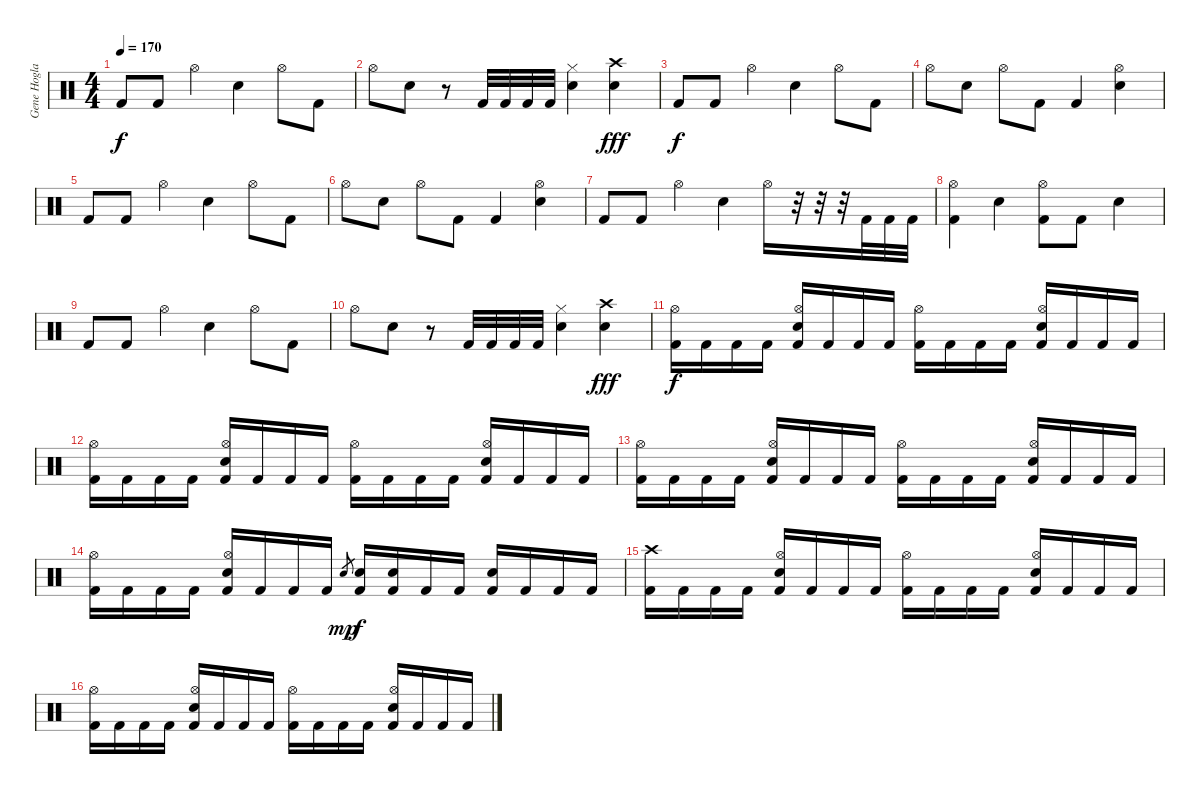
\track ("Gene Hoglan" "Gene Hogla") {instrument percussion}
\staff {score}
\articulation defaults
\ts (4 4)
\tempo 170
\clef neutral
\ks c "Kick (hit) 2".8{dy f} "Kick (hit) 2".8 "Hi-Hat (open)".4 "Snare (hit) 2".4 "Hi-Hat (open)".8 "Kick (hit) 2".8
|
"Hi-Hat (open)".8 "Snare (hit) 2".8 r.8 "Kick (hit) 2".32 "Kick (hit) 2".32 "Kick (hit) 2".32 "Kick (hit) 2".32 ("Hi-Hat (closed)" "Snare (hit) 2").4 ("Crash high (hit)" "Snare (hit) 2").4{dy fff} |
"Kick (hit) 2".8{dy f} "Kick (hit) 2".8 "Hi-Hat (open)".4 "Snare (hit) 2".4 "Hi-Hat (open)".8 "Kick (hit) 2".8 |
"Hi-Hat (open)".8 "Snare (hit) 2".8 "Hi-Hat (open)".8 "Kick (hit) 2".8 "Kick (hit) 2".4 ("Hi-Hat (open)" "Snare (hit) 2").4 |
"Kick (hit) 2".8 "Kick (hit) 2".8 "Hi-Hat (open)".4 "Snare (hit) 2".4 "Hi-Hat (open)".8 "Kick (hit) 2".8 |
"Hi-Hat (open)".8 "Snare (hit) 2".8 "Hi-Hat (open)".8 "Kick (hit) 2".8 "Kick (hit) 2".4 ("Hi-Hat (open)" "Snare (hit) 2").4 |
"Kick (hit) 2".8 "Kick (hit) 2".8 "Hi-Hat (open)".4 "Snare (hit) 2".4 "Hi-Hat (open)".16 r.32 r.32 r.32 "Kick (hit) 2".32 "Kick (hit) 2".32 "Kick (hit) 2".32 |
("Hi-Hat (open)" "Kick (hit) 2").4 "Snare (hit) 2".4 ("Hi-Hat (open)" "Kick (hit) 2").8 "Kick (hit) 2".8 "Snare (hit) 2".4 |
"Kick (hit) 2".8 "Kick (hit) 2".8 "Hi-Hat (open)".4 "Snare (hit) 2".4 "Hi-Hat (open)".8 "Kick (hit) 2".8 |
"Hi-Hat (open)".8 "Snare (hit) 2".8 r.8 "Kick (hit) 2".32 "Kick (hit) 2".32 "Kick (hit) 2".32 "Kick (hit) 2".32 ("Hi-Hat (closed)" "Snare (hit) 2").4 ("Crash high (hit)" "Snare (hit) 2").4{dy fff} |
("Hi-Hat (open)" "Kick (hit) 2").16{dy f} "Kick (hit) 2".16 "Kick (hit) 2".16 "Kick (hit) 2".16 ("Hi-Hat (open)" "Snare (hit) 2" "Kick (hit) 2").16 "Kick (hit) 2".16 "Kick (hit) 2".16 "Kick (hit) 2".16 ("Hi-Hat (open)" "Kick (hit) 2").16 "Kick (hit) 2".16 "Kick (hit) 2".16 "Kick (hit) 2".16 ("Hi-Hat (open)" "Snare (hit) 2" "Kick (hit) 2").16 "Kick (hit) 2".16 "Kick (hit) 2".16 "Kick (hit) 2".16 |
("Hi-Hat (open)" "Kick (hit) 2").16 "Kick (hit) 2".16 "Kick (hit) 2".16 "Kick (hit) 2".16 ("Hi-Hat (open)" "Snare (hit) 2" "Kick (hit) 2").16 "Kick (hit) 2".16 "Kick (hit) 2".16 "Kick (hit) 2".16 ("Hi-Hat (open)" "Kick (hit) 2").16 "Kick (hit) 2".16 "Kick (hit) 2".16 "Kick (hit) 2".16 ("Hi-Hat (open)" "Snare (hit) 2" "Kick (hit) 2").16 "Kick (hit) 2".16 "Kick (hit) 2".16 "Kick (hit) 2".16 |
("Hi-Hat (open)" "Kick (hit) 2").16 "Kick (hit) 2".16 "Kick (hit) 2".16 "Kick (hit) 2".16 ("Hi-Hat (open)" "Snare (hit) 2" "Kick (hit) 2").16 "Kick (hit) 2".16 "Kick (hit) 2".16 "Kick (hit) 2".16 ("Hi-Hat (open)" "Kick (hit) 2").16 "Kick (hit) 2".16 "Kick (hit) 2".16 "Kick (hit) 2".16 ("Hi-Hat (open)" "Snare (hit) 2" "Kick (hit) 2").16 "Kick (hit) 2".16 "Kick (hit) 2".16 "Kick (hit) 2".16 |
("Hi-Hat (open)" "Kick (hit) 2").16 "Kick (hit) 2".16 "Kick (hit) 2".16 "Kick (hit) 2".16 ("Hi-Hat (open)" "Snare (hit) 2" "Kick (hit) 2").16 "Kick (hit) 2".16 "Kick (hit) 2".16 "Kick (hit) 2".16 "Snare (hit) 2".8{gr dy mp} ("Snare (hit) 2" "Kick (hit) 2").16{dy f} ("Snare (hit) 2" "Kick (hit) 2").16 "Kick (hit) 2".16 "Kick (hit) 2".16 ("Snare (hit) 2" "Kick (hit) 2").16 "Kick (hit) 2".16 "Kick (hit) 2".16 "Kick (hit) 2".16 |
("Crash high (hit)" "Kick (hit) 2").16 "Kick (hit) 2".16 "Kick (hit) 2".16 "Kick (hit) 2".16 ("Hi-Hat (open)" "Snare (hit) 2" "Kick (hit) 2").16 "Kick (hit) 2".16 "Kick (hit) 2".16 "Kick (hit) 2".16 ("Hi-Hat (open)" "Kick (hit) 2").16 "Kick (hit) 2".16 "Kick (hit) 2".16 "Kick (hit) 2".16 ("Hi-Hat (open)" "Snare (hit) 2" "Kick (hit) 2").16 "Kick (hit) 2".16 "Kick (hit) 2".16 "Kick (hit) 2".16 |
("Hi-Hat (open)" "Kick (hit) 2").16 "Kick (hit) 2".16 "Kick (hit) 2".16 "Kick (hit) 2".16 ("Hi-Hat (open)" "Snare (hit) 2" "Kick (hit) 2").16 "Kick (hit) 2".16 "Kick (hit) 2".16 "Kick (hit) 2".16 ("Hi-Hat (open)" "Kick (hit) 2").16 "Kick (hit) 2".16 "Kick (hit) 2".16 "Kick (hit) 2".16 ("Hi-Hat (open)" "Snare (hit) 2" "Kick (hit) 2").16 "Kick (hit) 2".16 "Kick (hit) 2".16 "Kick (hit) 2".16
